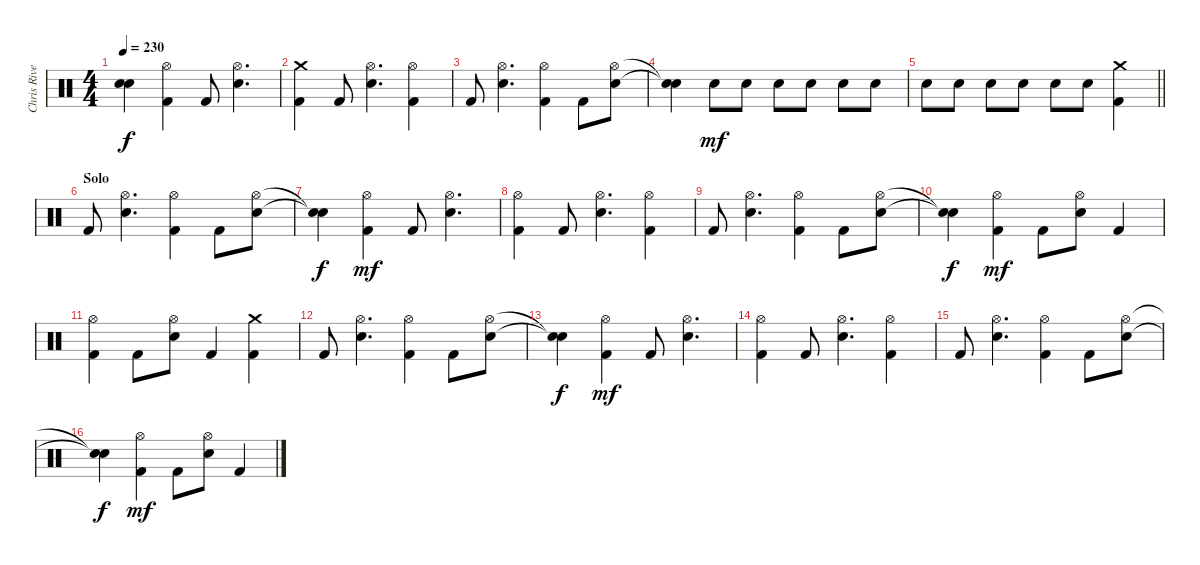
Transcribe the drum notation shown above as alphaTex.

\track ("Chris Rivers" "Chris Rive") {instrument percussion}
\staff {score}
\articulation defaults
\ts (4 4)
\tempo 230
\clef neutral
\ks c
("Snare (hit)"{t} "Snare (hit)"{t}).4{dy f} ("Hi-Hat (open)" "Kick (hit) 2").4 "Kick (hit) 2".8 ("Hi-Hat (open)" "Electric Snare (hit)").4{d} |
("Crash medium (hit)" "Kick (hit) 2").4 "Kick (hit) 2".8 ("Hi-Hat (open)" "Electric Snare (hit)").4{d} ("Hi-Hat (open)" "Kick (hit) 2").4 |
"Kick (hit) 2".8 ("Hi-Hat (open)" "Electric Snare (hit)").4{d} ("Hi-Hat (open)" "Kick (hit) 2").4 "Kick (hit) 2".8 ("Hi-Hat (open)" "Electric Snare (hit)").8 |
("Snare (hit)"{t} "Snare (hit)"{t}).4 "Electric Snare (hit)".8{dy mf} "Electric Snare (hit)".8 "Electric Snare (hit)".8 "Electric Snare (hit)".8 "Electric Snare (hit)".8 "Electric Snare (hit)".8 |
\barLineRight lightlight "Electric Snare (hit)".8 "Electric Snare (hit)".8 "Electric Snare (hit)".8 "Electric Snare (hit)".8 "Electric Snare (hit)".8 "Electric Snare (hit)".8
("Crash medium (hit)" "Kick (hit) 2").4 |
\section ("" "Solo")
"Kick (hit) 2".8 ("Hi-Hat (open)" "Electric Snare (hit)").4{d} ("Hi-Hat (open)" "Kick (hit) 2").4 "Kick (hit) 2".8 ("Hi-Hat (open)" "Electric Snare (hit)").8 |
("Snare (hit)"{t} "Snare (hit)"{t}).4{dy f} ("Hi-Hat (open)" "Kick (hit) 2").4{dy mf} "Kick (hit) 2".8 ("Hi-Hat (open)" "Electric Snare (hit)").4{d} |
("Hi-Hat (open)" "Kick (hit) 2").4 "Kick (hit) 2".8 ("Hi-Hat (open)" "Electric Snare (hit)").4{d} ("Hi-Hat (open)" "Kick (hit) 2").4 |
"Kick (hit) 2".8 ("Hi-Hat (open)" "Electric Snare (hit)").4{d} ("Hi-Hat (open)" "Kick (hit) 2").4 "Kick (hit) 2".8 ("Hi-Hat (open)" "Electric Snare (hit)").8 |
("Snare (hit)"{t} "Snare (hit)"{t}).4{dy f} ("Hi-Hat (open)" "Kick (hit) 2").4{dy mf} "Kick (hit) 2".8 ("Hi-Hat (open)" "Electric Snare (hit)").8 "Kick (hit) 2".4 |
("Hi-Hat (open)" "Kick (hit) 2").4 "Kick (hit) 2".8 ("Hi-Hat (open)" "Electric Snare (hit)").8 "Kick (hit) 2".4 ("Crash medium (hit)" "Kick (hit) 2").4 |
"Kick (hit) 2".8 ("Hi-Hat (open)" "Electric Snare (hit)").4{d} ("Hi-Hat (open)" "Kick (hit) 2").4 "Kick (hit) 2".8 ("Hi-Hat (open)" "Electric Snare (hit)").8 |
("Snare (hit)"{t} "Snare (hit)"{t}).4{dy f} ("Hi-Hat (open)" "Kick (hit) 2").4{dy mf} "Kick (hit) 2".8 ("Hi-Hat (open)" "Electric Snare (hit)").4{d} |
("Hi-Hat (open)" "Kick (hit) 2").4 "Kick (hit) 2".8 ("Hi-Hat (open)" "Electric Snare (hit)").4{d} ("Hi-Hat (open)" "Kick (hit) 2").4 |
"Kick (hit) 2".8 ("Hi-Hat (open)" "Electric Snare (hit)").4{d} ("Hi-Hat (open)" "Kick (hit) 2").4 "Kick (hit) 2".8 ("Hi-Hat (open)" "Electric Snare (hit)").8 |
("Snare (hit)"{t} "Snare (hit)"{t}).4{dy f} ("Hi-Hat (open)" "Kick (hit) 2").4{dy mf} "Kick (hit) 2".8 ("Hi-Hat (open)" "Electric Snare (hit)").8 "Kick (hit) 2".4
